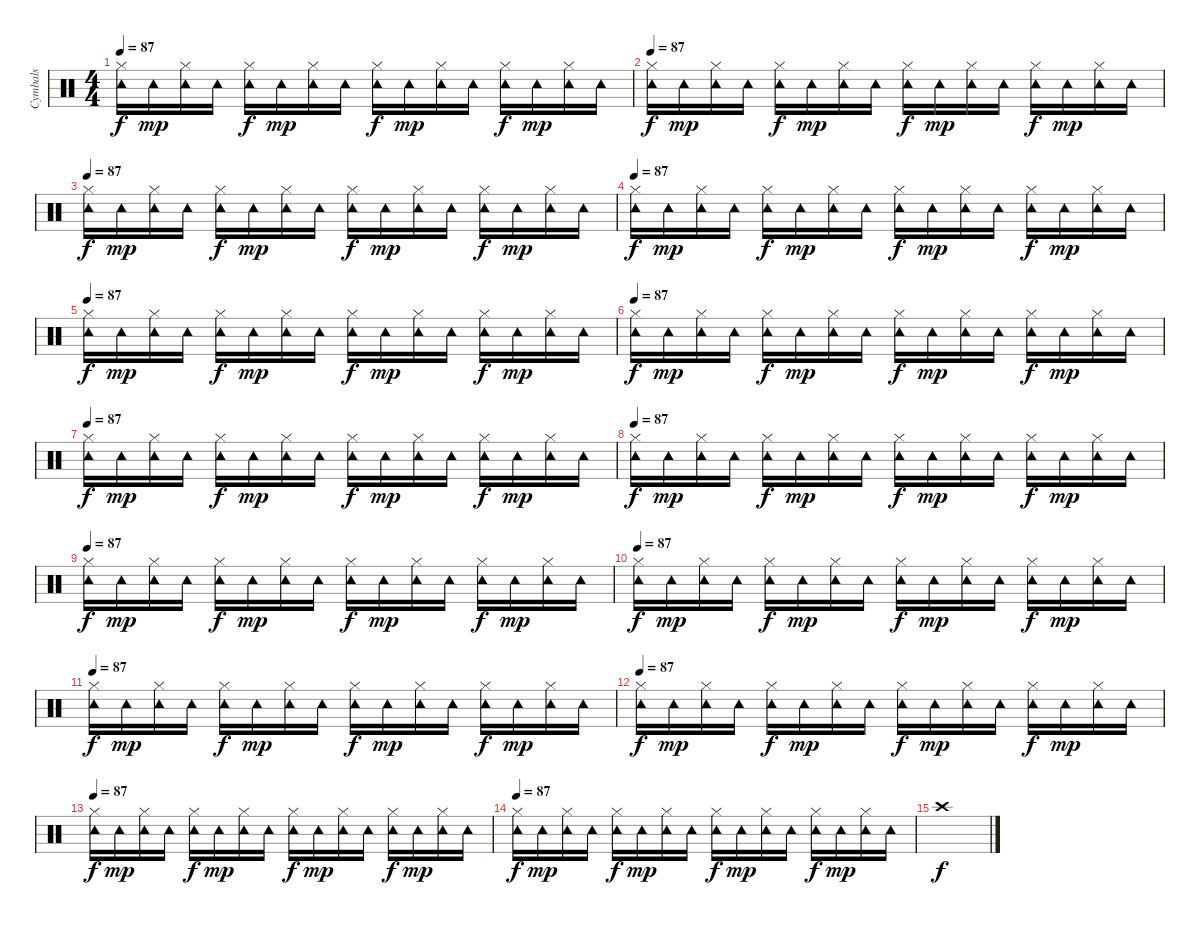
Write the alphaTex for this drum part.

\track ("Cymbals" "Cymbals") {instrument percussion}
\staff {score}
\articulation defaults
\ts (4 4)
\tempo 87
\clef neutral
\ks c
("Hi-Hat (closed)" "Tambourine (hit)").16{dy f} "Tambourine (hit)".16{dy mp} ("Hi-Hat (closed)" "Tambourine (hit)").16 "Tambourine (hit)".16 ("Hi-Hat (closed)" "Tambourine (hit)").16{dy f} "Tambourine (hit)".16{dy mp} ("Hi-Hat (closed)" "Tambourine (hit)").16 "Tambourine (hit)".16 ("Hi-Hat (closed)" "Tambourine (hit)").16{dy f} "Tambourine (hit)".16{dy mp} ("Hi-Hat (closed)" "Tambourine (hit)").16 "Tambourine (hit)".16 ("Hi-Hat (closed)" "Tambourine (hit)").16{dy f} "Tambourine (hit)".16{dy mp} ("Hi-Hat (closed)" "Tambourine (hit)").16 "Tambourine (hit)".16 |
\tempo 87
("Hi-Hat (closed)" "Tambourine (hit)").16{dy f} "Tambourine (hit)".16{dy mp} ("Hi-Hat (closed)" "Tambourine (hit)").16 "Tambourine (hit)".16 ("Hi-Hat (closed)" "Tambourine (hit)").16{dy f} "Tambourine (hit)".16{dy mp} ("Hi-Hat (closed)" "Tambourine (hit)").16 "Tambourine (hit)".16 ("Hi-Hat (closed)" "Tambourine (hit)").16{dy f} "Tambourine (hit)".16{dy mp} ("Hi-Hat (closed)" "Tambourine (hit)").16 "Tambourine (hit)".16 ("Hi-Hat (closed)" "Tambourine (hit)").16{dy f} "Tambourine (hit)".16{dy mp} ("Hi-Hat (closed)" "Tambourine (hit)").16 "Tambourine (hit)".16 |
\tempo 87
("Hi-Hat (closed)" "Tambourine (hit)").16{dy f} "Tambourine (hit)".16{dy mp} ("Hi-Hat (closed)" "Tambourine (hit)").16 "Tambourine (hit)".16 ("Hi-Hat (closed)" "Tambourine (hit)").16{dy f} "Tambourine (hit)".16{dy mp} ("Hi-Hat (closed)" "Tambourine (hit)").16 "Tambourine (hit)".16 ("Hi-Hat (closed)" "Tambourine (hit)").16{dy f} "Tambourine (hit)".16{dy mp} ("Hi-Hat (closed)" "Tambourine (hit)").16 "Tambourine (hit)".16 ("Hi-Hat (closed)" "Tambourine (hit)").16{dy f} "Tambourine (hit)".16{dy mp} ("Hi-Hat (closed)" "Tambourine (hit)").16 "Tambourine (hit)".16 |
\tempo 87
("Hi-Hat (closed)" "Tambourine (hit)").16{dy f} "Tambourine (hit)".16{dy mp} ("Hi-Hat (closed)" "Tambourine (hit)").16 "Tambourine (hit)".16 ("Hi-Hat (closed)" "Tambourine (hit)").16{dy f} "Tambourine (hit)".16{dy mp} ("Hi-Hat (closed)" "Tambourine (hit)").16 "Tambourine (hit)".16 ("Hi-Hat (closed)" "Tambourine (hit)").16{dy f} "Tambourine (hit)".16{dy mp} ("Hi-Hat (closed)" "Tambourine (hit)").16 "Tambourine (hit)".16 ("Hi-Hat (closed)" "Tambourine (hit)").16{dy f} "Tambourine (hit)".16{dy mp} ("Hi-Hat (closed)" "Tambourine (hit)").16 "Tambourine (hit)".16 |
\tempo 87
("Hi-Hat (closed)" "Tambourine (hit)").16{dy f} "Tambourine (hit)".16{dy mp} ("Hi-Hat (closed)" "Tambourine (hit)").16 "Tambourine (hit)".16 ("Hi-Hat (closed)" "Tambourine (hit)").16{dy f} "Tambourine (hit)".16{dy mp} ("Hi-Hat (closed)" "Tambourine (hit)").16 "Tambourine (hit)".16 ("Hi-Hat (closed)" "Tambourine (hit)").16{dy f} "Tambourine (hit)".16{dy mp} ("Hi-Hat (closed)" "Tambourine (hit)").16 "Tambourine (hit)".16 ("Hi-Hat (closed)" "Tambourine (hit)").16{dy f} "Tambourine (hit)".16{dy mp} ("Hi-Hat (closed)" "Tambourine (hit)").16 "Tambourine (hit)".16 |
\tempo 87
("Hi-Hat (closed)" "Tambourine (hit)").16{dy f} "Tambourine (hit)".16{dy mp} ("Hi-Hat (closed)" "Tambourine (hit)").16 "Tambourine (hit)".16 ("Hi-Hat (closed)" "Tambourine (hit)").16{dy f} "Tambourine (hit)".16{dy mp} ("Hi-Hat (closed)" "Tambourine (hit)").16 "Tambourine (hit)".16 ("Hi-Hat (closed)" "Tambourine (hit)").16{dy f} "Tambourine (hit)".16{dy mp} ("Hi-Hat (closed)" "Tambourine (hit)").16 "Tambourine (hit)".16 ("Hi-Hat (closed)" "Tambourine (hit)").16{dy f} "Tambourine (hit)".16{dy mp} ("Hi-Hat (closed)" "Tambourine (hit)").16 "Tambourine (hit)".16 |
\tempo 87
("Hi-Hat (closed)" "Tambourine (hit)").16{dy f} "Tambourine (hit)".16{dy mp} ("Hi-Hat (closed)" "Tambourine (hit)").16 "Tambourine (hit)".16 ("Hi-Hat (closed)" "Tambourine (hit)").16{dy f} "Tambourine (hit)".16{dy mp} ("Hi-Hat (closed)" "Tambourine (hit)").16 "Tambourine (hit)".16 ("Hi-Hat (closed)" "Tambourine (hit)").16{dy f} "Tambourine (hit)".16{dy mp} ("Hi-Hat (closed)" "Tambourine (hit)").16 "Tambourine (hit)".16 ("Hi-Hat (closed)" "Tambourine (hit)").16{dy f} "Tambourine (hit)".16{dy mp} ("Hi-Hat (closed)" "Tambourine (hit)").16 "Tambourine (hit)".16 |
\tempo 87
("Hi-Hat (closed)" "Tambourine (hit)").16{dy f} "Tambourine (hit)".16{dy mp} ("Hi-Hat (closed)" "Tambourine (hit)").16 "Tambourine (hit)".16 ("Hi-Hat (closed)" "Tambourine (hit)").16{dy f} "Tambourine (hit)".16{dy mp} ("Hi-Hat (closed)" "Tambourine (hit)").16 "Tambourine (hit)".16 ("Hi-Hat (closed)" "Tambourine (hit)").16{dy f} "Tambourine (hit)".16{dy mp} ("Hi-Hat (closed)" "Tambourine (hit)").16 "Tambourine (hit)".16 ("Hi-Hat (closed)" "Tambourine (hit)").16{dy f} "Tambourine (hit)".16{dy mp} ("Hi-Hat (closed)" "Tambourine (hit)").16 "Tambourine (hit)".16 |
\tempo 87
("Hi-Hat (closed)" "Tambourine (hit)").16{dy f} "Tambourine (hit)".16{dy mp} ("Hi-Hat (closed)" "Tambourine (hit)").16 "Tambourine (hit)".16 ("Hi-Hat (closed)" "Tambourine (hit)").16{dy f} "Tambourine (hit)".16{dy mp} ("Hi-Hat (closed)" "Tambourine (hit)").16 "Tambourine (hit)".16 ("Hi-Hat (closed)" "Tambourine (hit)").16{dy f} "Tambourine (hit)".16{dy mp} ("Hi-Hat (closed)" "Tambourine (hit)").16 "Tambourine (hit)".16 ("Hi-Hat (closed)" "Tambourine (hit)").16{dy f} "Tambourine (hit)".16{dy mp} ("Hi-Hat (closed)" "Tambourine (hit)").16 "Tambourine (hit)".16 |
\tempo 87
("Hi-Hat (closed)" "Tambourine (hit)").16{dy f} "Tambourine (hit)".16{dy mp} ("Hi-Hat (closed)" "Tambourine (hit)").16 "Tambourine (hit)".16 ("Hi-Hat (closed)" "Tambourine (hit)").16{dy f} "Tambourine (hit)".16{dy mp} ("Hi-Hat (closed)" "Tambourine (hit)").16 "Tambourine (hit)".16 ("Hi-Hat (closed)" "Tambourine (hit)").16{dy f} "Tambourine (hit)".16{dy mp} ("Hi-Hat (closed)" "Tambourine (hit)").16 "Tambourine (hit)".16 ("Hi-Hat (closed)" "Tambourine (hit)").16{dy f} "Tambourine (hit)".16{dy mp} ("Hi-Hat (closed)" "Tambourine (hit)").16 "Tambourine (hit)".16 |
\tempo 87
("Hi-Hat (closed)" "Tambourine (hit)").16{dy f} "Tambourine (hit)".16{dy mp} ("Hi-Hat (closed)" "Tambourine (hit)").16 "Tambourine (hit)".16 ("Hi-Hat (closed)" "Tambourine (hit)").16{dy f} "Tambourine (hit)".16{dy mp} ("Hi-Hat (closed)" "Tambourine (hit)").16 "Tambourine (hit)".16 ("Hi-Hat (closed)" "Tambourine (hit)").16{dy f} "Tambourine (hit)".16{dy mp} ("Hi-Hat (closed)" "Tambourine (hit)").16 "Tambourine (hit)".16 ("Hi-Hat (closed)" "Tambourine (hit)").16{dy f} "Tambourine (hit)".16{dy mp} ("Hi-Hat (closed)" "Tambourine (hit)").16 "Tambourine (hit)".16 |
\tempo 87
("Hi-Hat (closed)" "Tambourine (hit)").16{dy f} "Tambourine (hit)".16{dy mp} ("Hi-Hat (closed)" "Tambourine (hit)").16 "Tambourine (hit)".16 ("Hi-Hat (closed)" "Tambourine (hit)").16{dy f} "Tambourine (hit)".16{dy mp} ("Hi-Hat (closed)" "Tambourine (hit)").16 "Tambourine (hit)".16 ("Hi-Hat (closed)" "Tambourine (hit)").16{dy f} "Tambourine (hit)".16{dy mp} ("Hi-Hat (closed)" "Tambourine (hit)").16 "Tambourine (hit)".16 ("Hi-Hat (closed)" "Tambourine (hit)").16{dy f} "Tambourine (hit)".16{dy mp} ("Hi-Hat (closed)" "Tambourine (hit)").16 "Tambourine (hit)".16 |
\tempo 87
("Hi-Hat (closed)" "Tambourine (hit)").16{dy f} "Tambourine (hit)".16{dy mp} ("Hi-Hat (closed)" "Tambourine (hit)").16 "Tambourine (hit)".16 ("Hi-Hat (closed)" "Tambourine (hit)").16{dy f} "Tambourine (hit)".16{dy mp} ("Hi-Hat (closed)" "Tambourine (hit)").16 "Tambourine (hit)".16 ("Hi-Hat (closed)" "Tambourine (hit)").16{dy f} "Tambourine (hit)".16{dy mp} ("Hi-Hat (closed)" "Tambourine (hit)").16 "Tambourine (hit)".16 ("Hi-Hat (closed)" "Tambourine (hit)").16{dy f} "Tambourine (hit)".16{dy mp} ("Hi-Hat (closed)" "Tambourine (hit)").16 "Tambourine (hit)".16 |
\tempo 87
("Hi-Hat (closed)" "Tambourine (hit)").16{dy f} "Tambourine (hit)".16{dy mp} ("Hi-Hat (closed)" "Tambourine (hit)").16 "Tambourine (hit)".16 ("Hi-Hat (closed)" "Tambourine (hit)").16{dy f} "Tambourine (hit)".16{dy mp} ("Hi-Hat (closed)" "Tambourine (hit)").16 "Tambourine (hit)".16 ("Hi-Hat (closed)" "Tambourine (hit)").16{dy f} "Tambourine (hit)".16{dy mp} ("Hi-Hat (closed)" "Tambourine (hit)").16 "Tambourine (hit)".16 ("Hi-Hat (closed)" "Tambourine (hit)").16{dy f} "Tambourine (hit)".16{dy mp} ("Hi-Hat (closed)" "Tambourine (hit)").16 "Tambourine (hit)".16 |
"Crash high (hit)".1{dy f}
